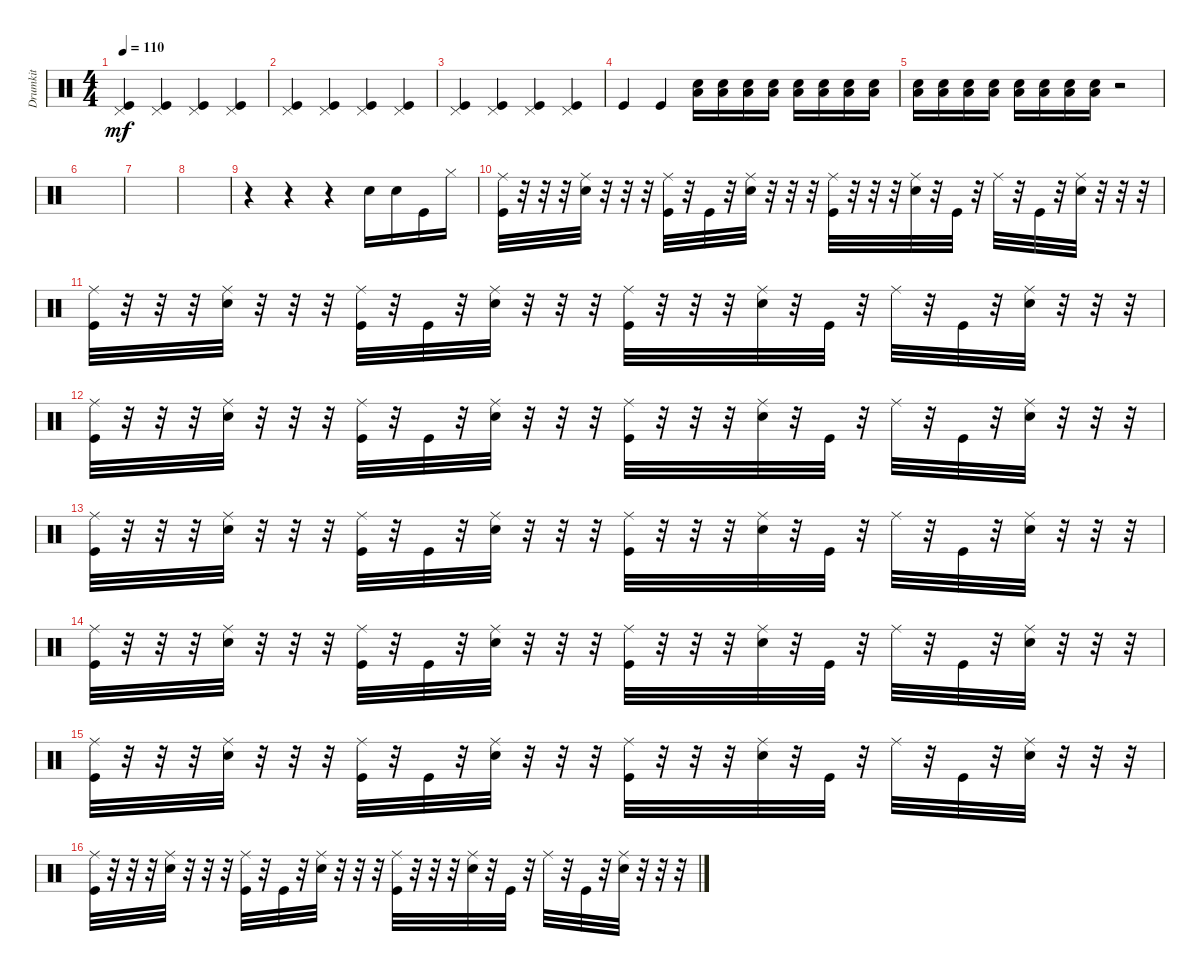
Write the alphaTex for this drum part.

\track ("Drumkit" "Drumkit") {instrument percussion}
\staff {score}
\articulation defaults
\ts (4 4)
\tempo 110
\clef neutral
\ks c
("Kick (hit)" "Pedal Hi-Hat (hit)").4{dy mf} ("Kick (hit)" "Pedal Hi-Hat (hit)").4 ("Kick (hit)" "Pedal Hi-Hat (hit)").4 ("Kick (hit)" "Pedal Hi-Hat (hit)").4 |
("Kick (hit)" "Pedal Hi-Hat (hit)").4 ("Kick (hit)" "Pedal Hi-Hat (hit)").4 ("Kick (hit)" "Pedal Hi-Hat (hit)").4 ("Kick (hit)" "Pedal Hi-Hat (hit)").4 |
("Kick (hit)" "Pedal Hi-Hat (hit)").4 ("Kick (hit)" "Pedal Hi-Hat (hit)").4 ("Kick (hit)" "Pedal Hi-Hat (hit)").4 ("Kick (hit)" "Pedal Hi-Hat (hit)").4 |
"Kick (hit)".4 "Kick (hit)".4 ("Snare (hit) 2" "Low Floor Tom (hit)").16 ("Snare (hit) 2" "Low Floor Tom (hit)").16 ("Snare (hit) 2" "Low Floor Tom (hit)").16 ("Snare (hit) 2" "Low Floor Tom (hit)").16 ("Snare (hit) 2" "Low Floor Tom (hit)").16 ("Snare (hit) 2" "Low Floor Tom (hit)").16 ("Snare (hit) 2" "Low Floor Tom (hit)").16 ("Snare (hit) 2" "Low Floor Tom (hit)").16 |
("Snare (hit) 2" "Low Floor Tom (hit)").16 ("Snare (hit) 2" "Low Floor Tom (hit)").16 ("Snare (hit) 2" "Low Floor Tom (hit)").16 ("Snare (hit) 2" "Low Floor Tom (hit)").16 ("Snare (hit) 2" "Low Floor Tom (hit)").16 ("Snare (hit) 2" "Low Floor Tom (hit)").16 ("Snare (hit) 2" "Low Floor Tom (hit)").16 ("Snare (hit) 2" "Low Floor Tom (hit)").16 r.2 |
|
|
|
r.4 r.4 r.4 "Snare (hit) 2".16 "Snare (hit) 2".16 "Kick (hit)".16 "Hi-Hat (closed)".16 |
("Kick (hit)" "Ride (middle)").32 r.32 r.32 r.32 ("Snare (hit) 2" "Ride (middle)").32 r.32 r.32 r.32 ("Kick (hit)" "Ride (middle)").32 r.32 "Kick (hit)".32 r.32 ("Snare (hit) 2" "Ride (middle)").32 r.32 r.32 r.32 ("Kick (hit)" "Ride (middle)").32 r.32 r.32 r.32 ("Ride (middle)" "Snare (hit) 2").32 r.32 "Kick (hit)".32 r.32 "Ride (middle)".32 r.32 "Kick (hit)".32 r.32 ("Ride (middle)" "Snare (hit) 2").32 r.32 r.32 r.32 |
("Kick (hit)" "Ride (middle)").32 r.32 r.32 r.32 ("Snare (hit) 2" "Ride (middle)").32 r.32 r.32 r.32 ("Kick (hit)" "Ride (middle)").32 r.32 "Kick (hit)".32 r.32 ("Snare (hit) 2" "Ride (middle)").32 r.32 r.32 r.32 ("Kick (hit)" "Ride (middle)").32 r.32 r.32 r.32 ("Ride (middle)" "Snare (hit) 2").32 r.32 "Kick (hit)".32 r.32 "Ride (middle)".32 r.32 "Kick (hit)".32 r.32 ("Ride (middle)" "Snare (hit) 2").32 r.32 r.32 r.32 |
("Kick (hit)" "Ride (middle)").32 r.32 r.32 r.32 ("Snare (hit) 2" "Ride (middle)").32 r.32 r.32 r.32 ("Kick (hit)" "Ride (middle)").32 r.32 "Kick (hit)".32 r.32 ("Snare (hit) 2" "Ride (middle)").32 r.32 r.32 r.32 ("Kick (hit)" "Ride (middle)").32 r.32 r.32 r.32 ("Ride (middle)" "Snare (hit) 2").32 r.32 "Kick (hit)".32 r.32 "Ride (middle)".32 r.32 "Kick (hit)".32 r.32 ("Ride (middle)" "Snare (hit) 2").32 r.32 r.32 r.32 |
("Kick (hit)" "Ride (middle)").32 r.32 r.32 r.32 ("Snare (hit) 2" "Ride (middle)").32 r.32 r.32 r.32 ("Kick (hit)" "Ride (middle)").32 r.32 "Kick (hit)".32 r.32 ("Snare (hit) 2" "Ride (middle)").32 r.32 r.32 r.32 ("Kick (hit)" "Ride (middle)").32 r.32 r.32 r.32 ("Ride (middle)" "Snare (hit) 2").32 r.32 "Kick (hit)".32 r.32 "Ride (middle)".32 r.32 "Kick (hit)".32 r.32 ("Ride (middle)" "Snare (hit) 2").32 r.32 r.32 r.32 |
("Kick (hit)" "Ride (middle)").32 r.32 r.32 r.32 ("Snare (hit) 2" "Ride (middle)").32 r.32 r.32 r.32 ("Kick (hit)" "Ride (middle)").32 r.32 "Kick (hit)".32 r.32 ("Snare (hit) 2" "Ride (middle)").32 r.32 r.32 r.32 ("Kick (hit)" "Ride (middle)").32 r.32 r.32 r.32 ("Ride (middle)" "Snare (hit) 2").32 r.32 "Kick (hit)".32 r.32 "Ride (middle)".32 r.32 "Kick (hit)".32 r.32 ("Ride (middle)" "Snare (hit) 2").32 r.32 r.32 r.32 |
("Kick (hit)" "Ride (middle)").32 r.32 r.32 r.32 ("Snare (hit) 2" "Ride (middle)").32 r.32 r.32 r.32 ("Kick (hit)" "Ride (middle)").32 r.32 "Kick (hit)".32 r.32 ("Snare (hit) 2" "Ride (middle)").32 r.32 r.32 r.32 ("Kick (hit)" "Ride (middle)").32 r.32 r.32 r.32 ("Ride (middle)" "Snare (hit) 2").32 r.32 "Kick (hit)".32 r.32 "Ride (middle)".32 r.32 "Kick (hit)".32 r.32 ("Ride (middle)" "Snare (hit) 2").32 r.32 r.32 r.32 |
("Kick (hit)" "Ride (middle)").32 r.32 r.32 r.32 ("Snare (hit) 2" "Ride (middle)").32 r.32 r.32 r.32 ("Kick (hit)" "Ride (middle)").32 r.32 "Kick (hit)".32 r.32 ("Snare (hit) 2" "Ride (middle)").32 r.32 r.32 r.32 ("Kick (hit)" "Ride (middle)").32 r.32 r.32 r.32 ("Ride (middle)" "Snare (hit) 2").32 r.32 "Kick (hit)".32 r.32 "Ride (middle)".32 r.32 "Kick (hit)".32 r.32 ("Ride (middle)" "Snare (hit) 2").32 r.32 r.32 r.32
